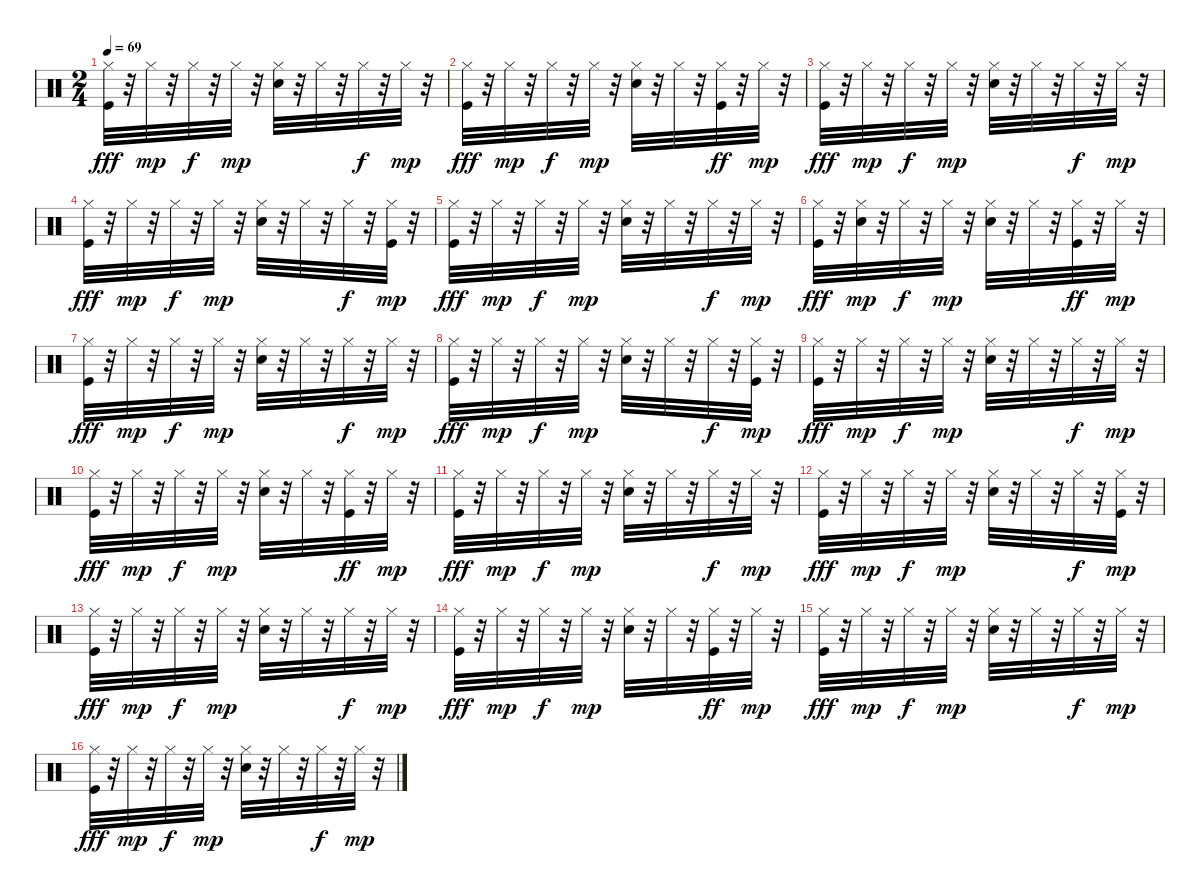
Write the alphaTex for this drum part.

\track "" {instrument percussion}
\staff {score}
\articulation defaults
\ts (2 4)
\tempo 69
\clef neutral
\ks c
("Hi-Hat (closed)" "Kick (hit)").32{dy fff} r.32 "Hi-Hat (closed)".32{dy mp} r.32 "Hi-Hat (closed)".32{dy f} r.32 "Hi-Hat (closed)".32{dy mp} r.32 ("Metronome (bell)" "Hi-Hat (closed)").32 r.32 "Hi-Hat (closed)".32 r.32 "Hi-Hat (closed)".32{dy f} r.32 "Hi-Hat (closed)".32{dy mp} r.32 |
("Kick (hit)" "Hi-Hat (closed)").32{dy fff} r.32 "Hi-Hat (closed)".32{dy mp} r.32 "Hi-Hat (closed)".32{dy f} r.32 "Hi-Hat (closed)".32{dy mp} r.32 ("Metronome (bell)" "Hi-Hat (closed)").32 r.32 "Hi-Hat (closed)".32 r.32 ("Hi-Hat (closed)" "Kick (hit)").32{dy ff} r.32 "Hi-Hat (closed)".32{dy mp} r.32 |
("Hi-Hat (closed)" "Kick (hit)").32{dy fff} r.32 "Hi-Hat (closed)".32{dy mp} r.32 "Hi-Hat (closed)".32{dy f} r.32 "Hi-Hat (closed)".32{dy mp} r.32 ("Metronome (bell)" "Hi-Hat (closed)").32 r.32 "Hi-Hat (closed)".32 r.32 "Hi-Hat (closed)".32{dy f} r.32 "Hi-Hat (closed)".32{dy mp} r.32 |
("Kick (hit)" "Hi-Hat (closed)").32{dy fff} r.32 "Hi-Hat (closed)".32{dy mp} r.32 "Hi-Hat (closed)".32{dy f} r.32 "Hi-Hat (closed)".32{dy mp} r.32 ("Metronome (bell)" "Hi-Hat (closed)").32 r.32 "Hi-Hat (closed)".32 r.32 "Hi-Hat (closed)".32{dy f} r.32 ("Kick (hit)" "Hi-Hat (closed)").32{dy mp} r.32 |
("Hi-Hat (closed)" "Kick (hit)").32{dy fff} r.32 "Hi-Hat (closed)".32{dy mp} r.32 "Hi-Hat (closed)".32{dy f} r.32 "Hi-Hat (closed)".32{dy mp} r.32 ("Metronome (bell)" "Hi-Hat (closed)").32 r.32 "Hi-Hat (closed)".32 r.32 "Hi-Hat (closed)".32{dy f} r.32 "Hi-Hat (closed)".32{dy mp} r.32 |
("Kick (hit)" "Hi-Hat (closed)").32{dy fff} r.32 ("Hi-Hat (closed)" "Metronome (bell)").32{dy mp} r.32 "Hi-Hat (closed)".32{dy f} r.32 "Hi-Hat (closed)".32{dy mp} r.32 ("Metronome (bell)" "Hi-Hat (closed)").32 r.32 "Hi-Hat (closed)".32 r.32 ("Hi-Hat (closed)" "Kick (hit)").32{dy ff} r.32 "Hi-Hat (closed)".32{dy mp} r.32 |
("Hi-Hat (closed)" "Kick (hit)").32{dy fff} r.32 "Hi-Hat (closed)".32{dy mp} r.32 "Hi-Hat (closed)".32{dy f} r.32 "Hi-Hat (closed)".32{dy mp} r.32 ("Metronome (bell)" "Hi-Hat (closed)").32 r.32 "Hi-Hat (closed)".32 r.32 "Hi-Hat (closed)".32{dy f} r.32 "Hi-Hat (closed)".32{dy mp} r.32 |
("Kick (hit)" "Hi-Hat (closed)").32{dy fff} r.32 "Hi-Hat (closed)".32{dy mp} r.32 "Hi-Hat (closed)".32{dy f} r.32 "Hi-Hat (closed)".32{dy mp} r.32 ("Metronome (bell)" "Hi-Hat (closed)").32 r.32 "Hi-Hat (closed)".32 r.32 "Hi-Hat (closed)".32{dy f} r.32 ("Kick (hit)" "Hi-Hat (closed)").32{dy mp} r.32 |
("Hi-Hat (closed)" "Kick (hit)").32{dy fff} r.32 "Hi-Hat (closed)".32{dy mp} r.32 "Hi-Hat (closed)".32{dy f} r.32 "Hi-Hat (closed)".32{dy mp} r.32 ("Metronome (bell)" "Hi-Hat (closed)").32 r.32 "Hi-Hat (closed)".32 r.32 "Hi-Hat (closed)".32{dy f} r.32 "Hi-Hat (closed)".32{dy mp} r.32 |
("Kick (hit)" "Hi-Hat (closed)").32{dy fff} r.32 "Hi-Hat (closed)".32{dy mp} r.32 "Hi-Hat (closed)".32{dy f} r.32 "Hi-Hat (closed)".32{dy mp} r.32 ("Metronome (bell)" "Hi-Hat (closed)").32 r.32 "Hi-Hat (closed)".32 r.32 ("Hi-Hat (closed)" "Kick (hit)").32{dy ff} r.32 "Hi-Hat (closed)".32{dy mp} r.32 |
("Hi-Hat (closed)" "Kick (hit)").32{dy fff} r.32 "Hi-Hat (closed)".32{dy mp} r.32 "Hi-Hat (closed)".32{dy f} r.32 "Hi-Hat (closed)".32{dy mp} r.32 ("Metronome (bell)" "Hi-Hat (closed)").32 r.32 "Hi-Hat (closed)".32 r.32 "Hi-Hat (closed)".32{dy f} r.32 "Hi-Hat (closed)".32{dy mp} r.32 |
("Kick (hit)" "Hi-Hat (closed)").32{dy fff} r.32 "Hi-Hat (closed)".32{dy mp} r.32 "Hi-Hat (closed)".32{dy f} r.32 "Hi-Hat (closed)".32{dy mp} r.32 ("Metronome (bell)" "Hi-Hat (closed)").32 r.32 "Hi-Hat (closed)".32 r.32 "Hi-Hat (closed)".32{dy f} r.32 ("Kick (hit)" "Hi-Hat (closed)").32{dy mp} r.32 |
("Hi-Hat (closed)" "Kick (hit)").32{dy fff} r.32 "Hi-Hat (closed)".32{dy mp} r.32 "Hi-Hat (closed)".32{dy f} r.32 "Hi-Hat (closed)".32{dy mp} r.32 ("Metronome (bell)" "Hi-Hat (closed)").32 r.32 "Hi-Hat (closed)".32 r.32 "Hi-Hat (closed)".32{dy f} r.32 "Hi-Hat (closed)".32{dy mp} r.32 |
("Kick (hit)" "Hi-Hat (closed)").32{dy fff} r.32 "Hi-Hat (closed)".32{dy mp} r.32 "Hi-Hat (closed)".32{dy f} r.32 "Hi-Hat (closed)".32{dy mp} r.32 ("Metronome (bell)" "Hi-Hat (closed)").32 r.32 "Hi-Hat (closed)".32 r.32 ("Hi-Hat (closed)" "Kick (hit)").32{dy ff} r.32 "Hi-Hat (closed)".32{dy mp} r.32 |
("Hi-Hat (closed)" "Kick (hit)").32{dy fff} r.32 "Hi-Hat (closed)".32{dy mp} r.32 "Hi-Hat (closed)".32{dy f} r.32 "Hi-Hat (closed)".32{dy mp} r.32 ("Metronome (bell)" "Hi-Hat (closed)").32 r.32 "Hi-Hat (closed)".32 r.32 "Hi-Hat (closed)".32{dy f} r.32 "Hi-Hat (closed)".32{dy mp} r.32 |
("Kick (hit)" "Hi-Hat (closed)").32{dy fff} r.32 "Hi-Hat (closed)".32{dy mp} r.32 "Hi-Hat (closed)".32{dy f} r.32 "Hi-Hat (closed)".32{dy mp} r.32 ("Metronome (bell)" "Hi-Hat (closed)").32 r.32 "Hi-Hat (closed)".32 r.32 "Hi-Hat (closed)".32{dy f} r.32 "Hi-Hat (closed)".32{dy mp} r.32
